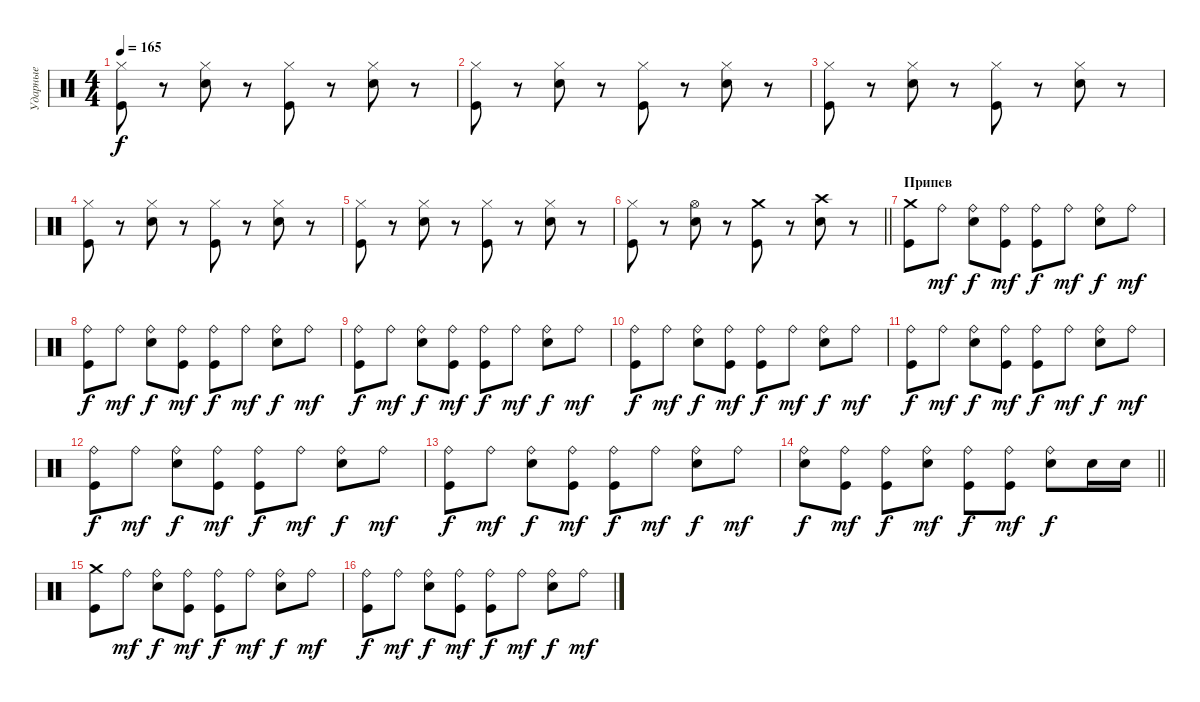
\track ("Ударные" "Ударные") {instrument percussion}
\staff {score}
\articulation defaults
\ts (4 4)
\tempo 165
\clef neutral
\ks c
("Hi-Hat (closed)" "Kick (hit)").8{dy f} r.8 ("Hi-Hat (closed)" "Electric Snare (hit)").8 r.8 ("Hi-Hat (closed)" "Kick (hit)").8 r.8 ("Hi-Hat (closed)" "Electric Snare (hit)").8 r.8 |
("Hi-Hat (closed)" "Kick (hit)").8 r.8 ("Hi-Hat (closed)" "Electric Snare (hit)").8 r.8 ("Hi-Hat (closed)" "Kick (hit)").8 r.8 ("Hi-Hat (closed)" "Electric Snare (hit)").8 r.8 |
("Hi-Hat (closed)" "Kick (hit)").8 r.8 ("Hi-Hat (closed)" "Electric Snare (hit)").8 r.8 ("Hi-Hat (closed)" "Kick (hit)").8 r.8 ("Hi-Hat (closed)" "Electric Snare (hit)").8 r.8 |
("Hi-Hat (closed)" "Kick (hit)").8 r.8 ("Hi-Hat (closed)" "Electric Snare (hit)").8 r.8 ("Hi-Hat (closed)" "Kick (hit)").8 r.8 ("Hi-Hat (closed)" "Electric Snare (hit)").8 r.8 |
("Hi-Hat (closed)" "Kick (hit)").8 r.8 ("Hi-Hat (closed)" "Electric Snare (hit)").8 r.8 ("Hi-Hat (closed)" "Kick (hit)").8 r.8 ("Hi-Hat (closed)" "Electric Snare (hit)").8 r.8 |
\barLineRight lightlight
("Hi-Hat (closed)" "Kick (hit)").8 r.8 ("Hi-Hat (open)" "Electric Snare (hit)").8 r.8 ("Crash medium (hit)" "Kick (hit)").8 r.8 ("Crash high (hit)" "Electric Snare (hit)").8 r.8 |
\section ("" "Припев")
("Crash medium (hit)" "Kick (hit)").8 "Ride (bell)".8{dy mf} ("Ride (bell)" "Electric Snare (hit)").8{dy f} ("Ride (bell)" "Kick (hit)").8{dy mf} ("Ride (bell)" "Kick (hit)").8{dy f} "Ride (bell)".8{dy mf} ("Ride (bell)" "Electric Snare (hit)").8{dy f} "Ride (bell)".8{dy mf} |
("Ride (bell)" "Kick (hit)").8{dy f} "Ride (bell)".8{dy mf} ("Ride (bell)" "Electric Snare (hit)").8{dy f} ("Ride (bell)" "Kick (hit)").8{dy mf} ("Ride (bell)" "Kick (hit)").8{dy f} "Ride (bell)".8{dy mf} ("Ride (bell)" "Electric Snare (hit)").8{dy f} "Ride (bell)".8{dy mf} |
("Ride (bell)" "Kick (hit)").8{dy f} "Ride (bell)".8{dy mf} ("Ride (bell)" "Electric Snare (hit)").8{dy f} ("Ride (bell)" "Kick (hit)").8{dy mf} ("Ride (bell)" "Kick (hit)").8{dy f} "Ride (bell)".8{dy mf} ("Ride (bell)" "Electric Snare (hit)").8{dy f} "Ride (bell)".8{dy mf} |
("Ride (bell)" "Kick (hit)").8{dy f} "Ride (bell)".8{dy mf} ("Ride (bell)" "Electric Snare (hit)").8{dy f} ("Ride (bell)" "Kick (hit)").8{dy mf} ("Ride (bell)" "Kick (hit)").8{dy f} "Ride (bell)".8{dy mf} ("Ride (bell)" "Electric Snare (hit)").8{dy f} "Ride (bell)".8{dy mf} |
("Ride (bell)" "Kick (hit)").8{dy f} "Ride (bell)".8{dy mf} ("Ride (bell)" "Electric Snare (hit)").8{dy f} ("Ride (bell)" "Kick (hit)").8{dy mf} ("Ride (bell)" "Kick (hit)").8{dy f} "Ride (bell)".8{dy mf} ("Ride (bell)" "Electric Snare (hit)").8{dy f} "Ride (bell)".8{dy mf} |
("Ride (bell)" "Kick (hit)").8{dy f} "Ride (bell)".8{dy mf} ("Ride (bell)" "Electric Snare (hit)").8{dy f} ("Ride (bell)" "Kick (hit)").8{dy mf} ("Ride (bell)" "Kick (hit)").8{dy f} "Ride (bell)".8{dy mf} ("Ride (bell)" "Electric Snare (hit)").8{dy f} "Ride (bell)".8{dy mf} |
("Ride (bell)" "Kick (hit)").8{dy f} "Ride (bell)".8{dy mf} ("Ride (bell)" "Electric Snare (hit)").8{dy f} ("Ride (bell)" "Kick (hit)").8{dy mf} ("Ride (bell)" "Kick (hit)").8{dy f} "Ride (bell)".8{dy mf} ("Ride (bell)" "Electric Snare (hit)").8{dy f} "Ride (bell)".8{dy mf} |
\barLineRight lightlight
("Ride (bell)" "Electric Snare (hit)").8{dy f} ("Ride (bell)" "Kick (hit)").8{dy mf} ("Ride (bell)" "Kick (hit)").8{dy f} ("Ride (bell)" "Electric Snare (hit)").8{dy mf} ("Ride (bell)" "Kick (hit)").8{dy f} ("Ride (bell)" "Kick (hit)").8{dy mf} ("Ride (bell)" "Electric Snare (hit)").8{dy f} "Electric Snare (hit)".16 "Electric Snare (hit)".16 |
\section ("" " ")
("Crash medium (hit)" "Kick (hit)").8 "Ride (bell)".8{dy mf} ("Ride (bell)" "Electric Snare (hit)").8{dy f} ("Ride (bell)" "Kick (hit)").8{dy mf} ("Ride (bell)" "Kick (hit)").8{dy f} "Ride (bell)".8{dy mf} ("Ride (bell)" "Electric Snare (hit)").8{dy f} "Ride (bell)".8{dy mf} |
("Ride (bell)" "Kick (hit)").8{dy f} "Ride (bell)".8{dy mf} ("Ride (bell)" "Electric Snare (hit)").8{dy f} ("Ride (bell)" "Kick (hit)").8{dy mf} ("Ride (bell)" "Kick (hit)").8{dy f} "Ride (bell)".8{dy mf} ("Ride (bell)" "Electric Snare (hit)").8{dy f} "Ride (bell)".8{dy mf}
